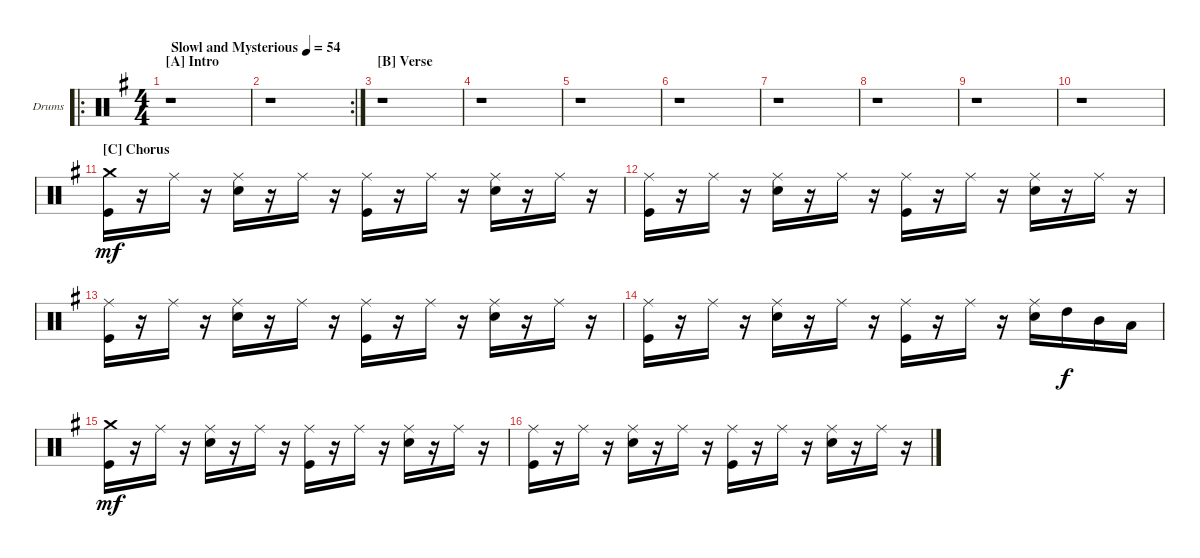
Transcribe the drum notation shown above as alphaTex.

\bracketExtendMode groupsimilarinstruments
\firstSystemTrackNameOrientation horizontal
\otherSystemsTrackNameOrientation horizontal
\track ("Drumkit" "Drums") {instrument percussion}
\staff {score}
\articulation defaults
\ro
\ts (4 4)
\section ("A" "Intro")
\tempo (54 "Slowl and Mysterious")
\clef neutral
\scale
1.07314
\ks g
r.1{dy mf} |
\rc 2
\scale
0.92686 r.1 |
\section ("B" "Verse")
\scale
1.04288 r.1 |
\scale
0.957125 r.1 |
\scale
1.04288 r.1 |
\scale
0.957125 r.1 |
\scale
1.04288 r.1 |
\scale
0.957125 r.1 |
\scale
1.04288 r.1 |
\scale
0.957125 r.1 |
\section ("C" "Chorus")
\scale
1.04288 ("Crash medium (hit)" "Kick (hit)").16 r.16 "Ride (middle)".16 r.16 ("Ride (middle)" "Snare (hit) 2").16 r.16 "Ride (middle)".16 r.16 ("Ride (middle)" "Kick (hit)").16 r.16 "Ride (middle)".16 r.16 ("Ride (middle)" "Snare (hit) 2").16 r.16 "Ride (middle)".16 r.16 |
\scale
0.957125 ("Ride (middle)" "Kick (hit)").16 r.16 "Ride (middle)".16 r.16 ("Ride (middle)" "Snare (hit) 2").16 r.16 "Ride (middle)".16 r.16 ("Ride (middle)" "Kick (hit)").16 r.16 "Ride (middle)".16 r.16 ("Ride (middle)" "Snare (hit) 2").16 r.16 "Ride (middle)".16 r.16 |
\scale
1.04288 ("Ride (middle)" "Kick (hit)").16 r.16 "Ride (middle)".16 r.16 ("Ride (middle)" "Snare (hit) 2").16 r.16 "Ride (middle)".16 r.16 ("Ride (middle)" "Kick (hit)").16 r.16 "Ride (middle)".16 r.16 ("Ride (middle)" "Snare (hit) 2").16 r.16 "Ride (middle)".16 r.16 |
\scale
0.957125 ("Ride (middle)" "Kick (hit)").16 r.16 "Ride (middle)".16 r.16 ("Ride (middle)" "Snare (hit) 2").16 r.16 "Ride (middle)".16 r.16 ("Ride (middle)" "Kick (hit)").16 r.16 "Ride (middle)".16 r.16 ("Ride (middle)" "Snare (hit) 2").16 "High Tom (hit)".16{dy f} "Mid Tom (hit)".16 "Low Tom (hit)".16 |
\scale
1.04288 ("Crash medium (hit)" "Kick (hit)").16{dy mf} r.16 "Ride (middle)".16 r.16 ("Ride (middle)" "Snare (hit) 2").16 r.16 "Ride (middle)".16 r.16 ("Ride (middle)" "Kick (hit)").16 r.16 "Ride (middle)".16 r.16 ("Ride (middle)" "Snare (hit) 2").16 r.16 "Ride (middle)".16 r.16 |
\scale
0.957125 ("Ride (middle)" "Kick (hit)").16 r.16 "Ride (middle)".16 r.16 ("Ride (middle)" "Snare (hit) 2").16 r.16 "Ride (middle)".16 r.16 ("Ride (middle)" "Kick (hit)").16 r.16 "Ride (middle)".16 r.16 ("Ride (middle)" "Snare (hit) 2").16 r.16 "Ride (middle)".16 r.16
